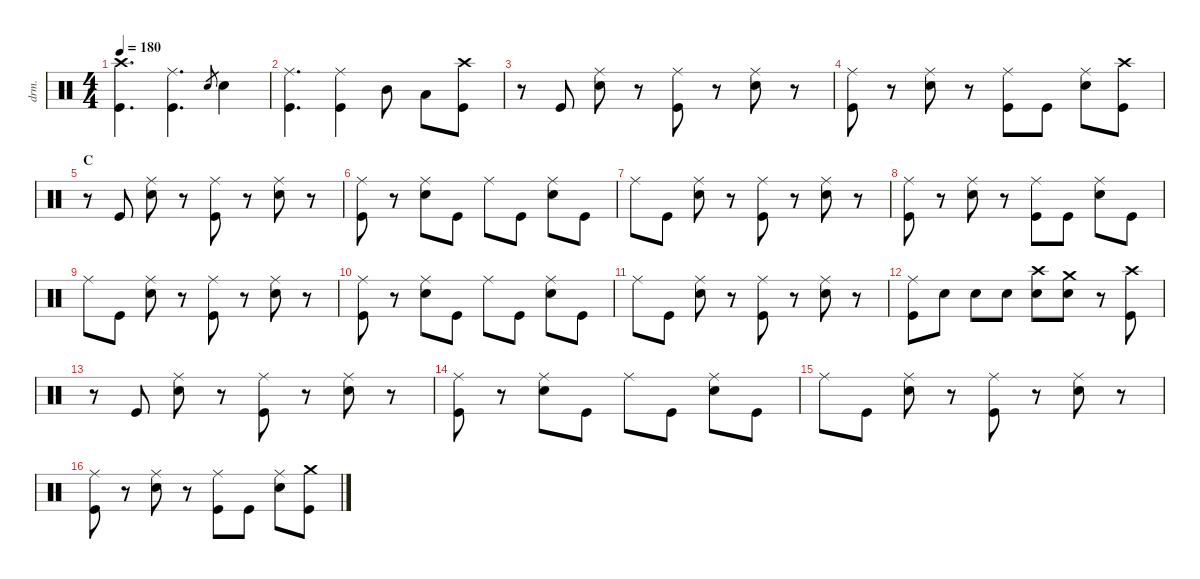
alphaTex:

\defaultSystemsLayout 4
\hideDynamics
\bracketExtendMode nobrackets
\track ("Bateria" "drm.") {instrument percussion}
\staff {score}
\articulation defaults
\ts (4 4)
\tempo 180
\clef neutral
\ks c
("Kick (hit)" "Crash high (hit)").4{d dy f} ("Ride (middle)" "Kick (hit)").4{d} "Electric Snare (hit)".8{gr dy mf} "Snare (hit) 2".4{dy f} |
("Ride (middle)" "Kick (hit)").4{d} ("Ride (middle)" "Kick (hit)").4 "Mid Tom (hit)".8 "Low Tom (hit)".8 ("Kick (hit)" "Crash high (hit)").8 |
r.8 "Kick (hit)".8 ("Ride (middle)" "Snare (hit) 2").8 r.8 ("Ride (middle)" "Kick (hit)").8 r.8 ("Ride (middle)" "Snare (hit) 2").8 r.8 |
("Ride (middle)" "Kick (hit)").8 r.8 ("Ride (middle)" "Snare (hit) 2").8 r.8 ("Ride (middle)" "Kick (hit)").8 "Kick (hit)".8 ("Ride (middle)" "Snare (hit) 2").8 ("Kick (hit)" "Crash high (hit)").8 |
\section ("" "C")
r.8 "Kick (hit)".8 ("Ride (middle)" "Snare (hit) 2").8 r.8 ("Ride (middle)" "Kick (hit)").8 r.8 ("Ride (middle)" "Snare (hit) 2").8 r.8 |
("Ride (middle)" "Kick (hit)").8 r.8 ("Ride (middle)" "Snare (hit) 2").8 "Kick (hit)".8 "Ride (middle)".8 "Kick (hit)".8 ("Ride (middle)" "Snare (hit) 2").8 "Kick (hit)".8 |
"Ride (middle)".8 "Kick (hit)".8 ("Ride (middle)" "Snare (hit) 2").8 r.8 ("Ride (middle)" "Kick (hit)").8 r.8 ("Ride (middle)" "Snare (hit) 2").8 r.8 |
("Ride (middle)" "Kick (hit)").8 r.8 ("Ride (middle)" "Snare (hit) 2").8 r.8 ("Ride (middle)" "Kick (hit)").8 "Kick (hit)".8 ("Ride (middle)" "Snare (hit) 2").8 "Kick (hit)".8 |
"Ride (middle)".8 "Kick (hit)".8 ("Ride (middle)" "Snare (hit) 2").8 r.8 ("Ride (middle)" "Kick (hit)").8 r.8 ("Ride (middle)" "Snare (hit) 2").8 r.8 |
("Ride (middle)" "Kick (hit)").8 r.8 ("Ride (middle)" "Snare (hit) 2").8 "Kick (hit)".8 "Ride (middle)".8 "Kick (hit)".8 ("Ride (middle)" "Snare (hit) 2").8 "Kick (hit)".8 |
"Ride (middle)".8 "Kick (hit)".8 ("Ride (middle)" "Snare (hit) 2").8 r.8 ("Ride (middle)" "Kick (hit)").8 r.8 ("Ride (middle)" "Snare (hit) 2").8 r.8 |
("Ride (middle)" "Kick (hit)").8 "Snare (hit) 2".8 "Snare (hit) 2".8 "Snare (hit) 2".8 ("Snare (hit) 2" "Crash high (hit)").8 ("Snare (hit) 2" "Crash medium (hit)").8 r.8 ("Kick (hit)" "Crash high (hit)").8 |
r.8 "Kick (hit)".8 ("Ride (middle)" "Snare (hit) 2").8 r.8 ("Ride (middle)" "Kick (hit)").8 r.8 ("Ride (middle)" "Snare (hit) 2").8 r.8 |
("Ride (middle)" "Kick (hit)").8 r.8 ("Ride (middle)" "Snare (hit) 2").8 "Kick (hit)".8 "Ride (middle)".8 "Kick (hit)".8 ("Ride (middle)" "Snare (hit) 2").8 "Kick (hit)".8 |
"Ride (middle)".8 "Kick (hit)".8 ("Ride (middle)" "Snare (hit) 2").8 r.8 ("Ride (middle)" "Kick (hit)").8 r.8 ("Ride (middle)" "Snare (hit) 2").8 r.8 |
("Ride (middle)" "Kick (hit)").8 r.8 ("Ride (middle)" "Snare (hit) 2").8 r.8 ("Ride (middle)" "Kick (hit)").8 "Kick (hit)".8 ("Ride (middle)" "Snare (hit) 2").8 ("Kick (hit)" "Crash medium (hit)").8
